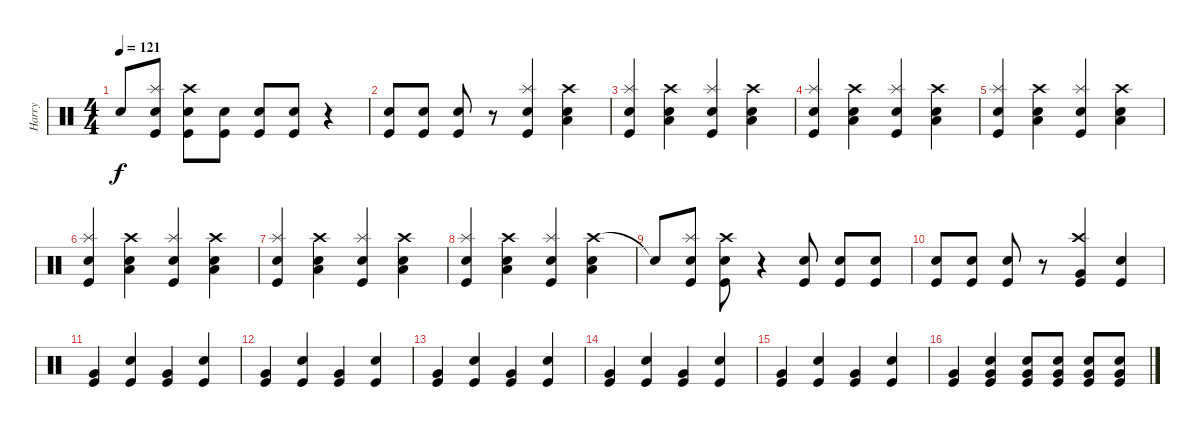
\track ("Harry" "Harry") {instrument percussion}
\staff {score}
\articulation defaults
\ts (4 4)
\tempo 121
\clef neutral
\ks c "Snare (hit)"{t}.8{dy f}
("Splash (hit)" "Kick (hit)" "Snare (hit) 2").8 ("Crash high (hit)" "Kick (hit)" "Snare (hit) 2").8 ("Kick (hit)" "Snare (hit) 2").8 ("Kick (hit)" "Snare (hit) 2").8 ("Kick (hit)" "Snare (hit) 2").8 r.4 |
("Kick (hit)" "Snare (hit) 2").8 ("Kick (hit)" "Snare (hit) 2").8 ("Kick (hit)" "Snare (hit) 2").8 r.8 ("Splash (hit)" "Snare (hit) 2" "Kick (hit)").4 ("Crash high (hit)" "Snare (hit) 2" "Low Tom (hit)").4 |
("Splash (hit)" "Snare (hit) 2" "Kick (hit)").4 ("Crash high (hit)" "Snare (hit) 2" "Low Tom (hit)").4 ("Splash (hit)" "Snare (hit) 2" "Kick (hit)").4 ("Crash high (hit)" "Snare (hit) 2" "Low Tom (hit)").4 |
("Splash (hit)" "Snare (hit) 2" "Kick (hit)").4 ("Crash high (hit)" "Snare (hit) 2" "Low Tom (hit)").4 ("Splash (hit)" "Snare (hit) 2" "Kick (hit)").4 ("Crash high (hit)" "Snare (hit) 2" "Low Tom (hit)").4 |
("Splash (hit)" "Snare (hit) 2" "Kick (hit)").4 ("Crash high (hit)" "Snare (hit) 2" "Low Tom (hit)").4 ("Splash (hit)" "Snare (hit) 2" "Kick (hit)").4 ("Crash high (hit)" "Snare (hit) 2" "Low Tom (hit)").4 |
("Splash (hit)" "Snare (hit) 2" "Kick (hit)").4 ("Crash high (hit)" "Snare (hit) 2" "Low Tom (hit)").4 ("Splash (hit)" "Snare (hit) 2" "Kick (hit)").4 ("Crash high (hit)" "Snare (hit) 2" "Low Tom (hit)").4 |
("Splash (hit)" "Snare (hit) 2" "Kick (hit)").4 ("Crash high (hit)" "Snare (hit) 2" "Low Tom (hit)").4 ("Splash (hit)" "Snare (hit) 2" "Kick (hit)").4 ("Crash high (hit)" "Snare (hit) 2" "Low Tom (hit)").4 |
("Splash (hit)" "Snare (hit) 2" "Kick (hit)").4 ("Crash high (hit)" "Snare (hit) 2" "Low Tom (hit)").4 ("Splash (hit)" "Snare (hit) 2" "Kick (hit)").4 ("Crash high (hit)" "Snare (hit) 2" "Low Tom (hit)").4 |
"Snare (hit)"{t}.8 ("Splash (hit)" "Kick (hit)" "Snare (hit) 2").8 ("Crash high (hit)" "Kick (hit)" "Snare (hit) 2").8 r.4 ("Kick (hit)" "Snare (hit) 2").8 ("Kick (hit)" "Snare (hit) 2").8 ("Kick (hit)" "Snare (hit) 2").8 |
("Kick (hit)" "Snare (hit) 2").8 ("Kick (hit)" "Snare (hit) 2").8 ("Kick (hit)" "Snare (hit) 2").8 r.8 ("Crash high (hit)" "Kick (hit)" "Very Low Tom (hit)").4 ("Kick (hit)" "Snare (hit) 2").4 |
("Kick (hit)" "Very Low Tom (hit)").4 ("Kick (hit)" "Snare (hit) 2").4 ("Kick (hit)" "Very Low Tom (hit)").4 ("Kick (hit)" "Snare (hit) 2").4 |
("Kick (hit)" "Very Low Tom (hit)").4 ("Kick (hit)" "Snare (hit) 2").4 ("Kick (hit)" "Very Low Tom (hit)").4 ("Kick (hit)" "Snare (hit) 2").4 |
("Kick (hit)" "Very Low Tom (hit)").4 ("Kick (hit)" "Snare (hit) 2").4 ("Kick (hit)" "Very Low Tom (hit)").4 ("Kick (hit)" "Snare (hit) 2").4 |
("Kick (hit)" "Very Low Tom (hit)").4 ("Kick (hit)" "Snare (hit) 2").4 ("Kick (hit)" "Very Low Tom (hit)").4 ("Kick (hit)" "Snare (hit) 2").4 |
("Kick (hit)" "Very Low Tom (hit)").4 ("Kick (hit)" "Snare (hit) 2").4 ("Kick (hit)" "Very Low Tom (hit)").4 ("Kick (hit)" "Snare (hit) 2").4 |
("Kick (hit)" "Very Low Tom (hit)").4 ("Very Low Tom (hit)" "Kick (hit)" "Snare (hit) 2").4 ("Very Low Tom (hit)" "Kick (hit)" "Snare (hit) 2").8 ("Very Low Tom (hit)" "Kick (hit)" "Snare (hit) 2").8 ("Very Low Tom (hit)" "Kick (hit)" "Snare (hit) 2").8 ("Very Low Tom (hit)" "Kick (hit)" "Snare (hit) 2").8
